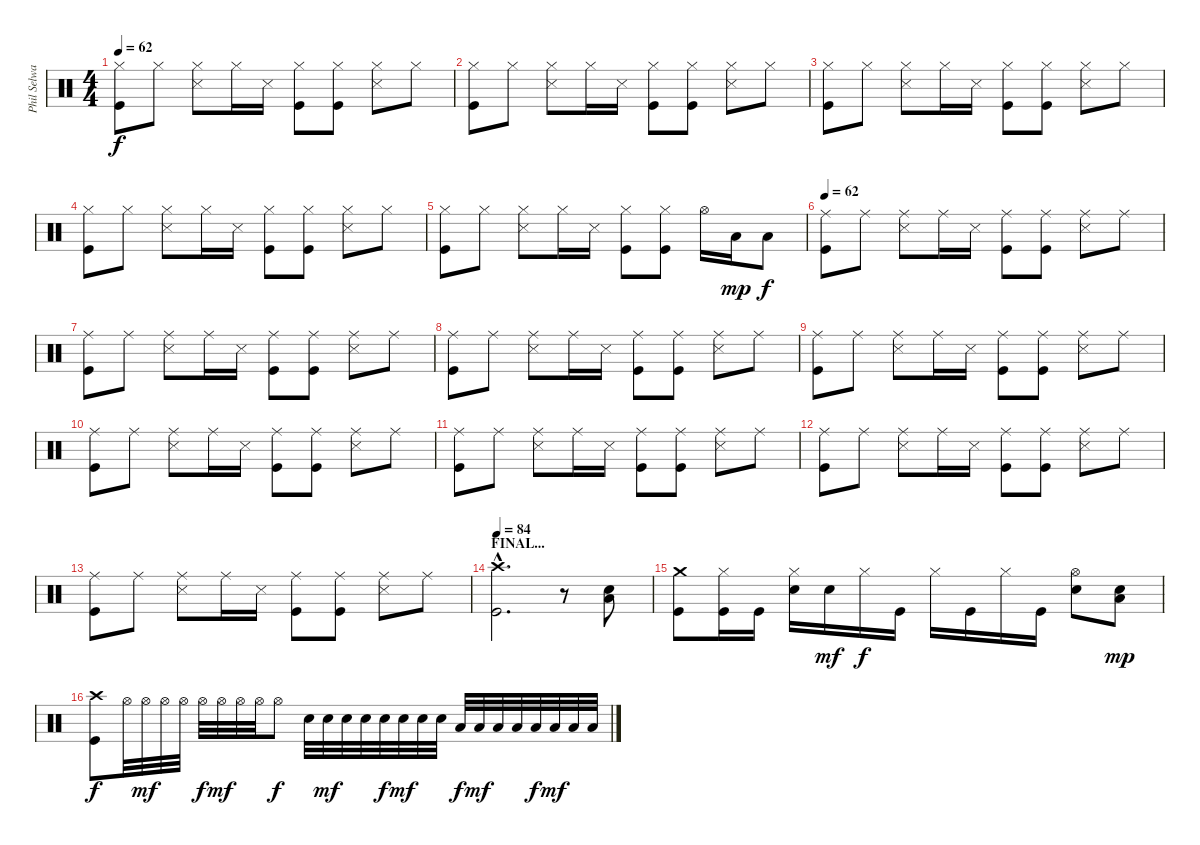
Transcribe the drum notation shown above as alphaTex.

\track ("Phil Selway" "Phil Selwa") {instrument percussion}
\staff {score}
\articulation defaults
\ts (4 4)
\tempo 62
\clef neutral
\ks c
("Hi-Hat (closed)" "Kick (hit)").8{dy f} "Hi-Hat (closed)".8 ("Hi-Hat (closed)" "Snare (side stick) 3").8 "Hi-Hat (closed)".16 "Snare (side stick) 3".16 ("Hi-Hat (closed)" "Kick (hit)").8 ("Hi-Hat (closed)" "Kick (hit)").8 ("Hi-Hat (closed)" "Snare (side stick) 3").8 "Hi-Hat (closed)".8 |
("Hi-Hat (closed)" "Kick (hit)").8 "Hi-Hat (closed)".8 ("Hi-Hat (closed)" "Snare (side stick) 3").8 "Hi-Hat (closed)".16 "Snare (side stick) 3".16 ("Hi-Hat (closed)" "Kick (hit)").8 ("Hi-Hat (closed)" "Kick (hit)").8 ("Hi-Hat (closed)" "Snare (side stick) 3").8 "Hi-Hat (closed)".8 |
("Hi-Hat (closed)" "Kick (hit)").8 "Hi-Hat (closed)".8 ("Hi-Hat (closed)" "Snare (side stick) 3").8 "Hi-Hat (closed)".16 "Snare (side stick) 3".16 ("Hi-Hat (closed)" "Kick (hit)").8 ("Hi-Hat (closed)" "Kick (hit)").8 ("Hi-Hat (closed)" "Snare (side stick) 3").8 "Hi-Hat (closed)".8 |
("Hi-Hat (closed)" "Kick (hit)").8 "Hi-Hat (closed)".8 ("Hi-Hat (closed)" "Snare (side stick) 3").8 "Hi-Hat (closed)".16 "Snare (side stick) 3".16 ("Hi-Hat (closed)" "Kick (hit)").8 ("Hi-Hat (closed)" "Kick (hit)").8 ("Hi-Hat (closed)" "Snare (side stick) 3").8 "Hi-Hat (closed)".8 |
("Hi-Hat (closed)" "Kick (hit)").8 "Hi-Hat (closed)".8 ("Hi-Hat (closed)" "Snare (side stick) 3").8 "Hi-Hat (closed)".16 "Snare (side stick) 3".16 ("Hi-Hat (closed)" "Kick (hit)").8 ("Hi-Hat (closed)" "Kick (hit)").8 "Hi-Hat (open)".16 "Low Tom (hit)".16{dy mp} "Low Tom (hit)".8{dy f} |
\tempo 62
("Ride (middle)" "Kick (hit)").8 "Ride (middle)".8 ("Ride (middle)" "Snare (side stick) 3").8 "Ride (middle)".16 "Snare (side stick) 3".16 ("Ride (middle)" "Kick (hit)").8 ("Ride (middle)" "Kick (hit)").8 ("Ride (middle)" "Snare (side stick) 3").8 "Ride (middle)".8 |
("Ride (middle)" "Kick (hit)").8 "Ride (middle)".8 ("Ride (middle)" "Snare (side stick) 3").8 "Ride (middle)".16 "Snare (side stick) 3".16 ("Ride (middle)" "Kick (hit)").8 ("Ride (middle)" "Kick (hit)").8 ("Ride (middle)" "Snare (side stick) 3").8 "Ride (middle)".8 |
("Ride (middle)" "Kick (hit)").8 "Ride (middle)".8 ("Ride (middle)" "Snare (side stick) 3").8 "Ride (middle)".16 "Snare (side stick) 3".16 ("Ride (middle)" "Kick (hit)").8 ("Ride (middle)" "Kick (hit)").8 ("Ride (middle)" "Snare (side stick) 3").8 "Ride (middle)".8 |
("Ride (middle)" "Kick (hit)").8 "Ride (middle)".8 ("Ride (middle)" "Snare (side stick) 3").8 "Ride (middle)".16 "Snare (side stick) 3".16 ("Ride (middle)" "Kick (hit)").8 ("Ride (middle)" "Kick (hit)").8 ("Ride (middle)" "Snare (side stick) 3").8 "Ride (middle)".8 |
("Ride (middle)" "Kick (hit)").8 "Ride (middle)".8 ("Ride (middle)" "Snare (side stick) 3").8 "Ride (middle)".16 "Snare (side stick) 3".16 ("Ride (middle)" "Kick (hit)").8 ("Ride (middle)" "Kick (hit)").8 ("Ride (middle)" "Snare (side stick) 3").8 "Ride (middle)".8 |
("Ride (middle)" "Kick (hit)").8 "Ride (middle)".8 ("Ride (middle)" "Snare (side stick) 3").8 "Ride (middle)".16 "Snare (side stick) 3".16 ("Ride (middle)" "Kick (hit)").8 ("Ride (middle)" "Kick (hit)").8 ("Ride (middle)" "Snare (side stick) 3").8 "Ride (middle)".8 |
("Ride (middle)" "Kick (hit)").8 "Ride (middle)".8 ("Ride (middle)" "Snare (side stick) 3").8 "Ride (middle)".16 "Snare (side stick) 3".16 ("Ride (middle)" "Kick (hit)").8 ("Ride (middle)" "Kick (hit)").8 ("Ride (middle)" "Snare (side stick) 3").8 "Ride (middle)".8 |
("Ride (middle)" "Kick (hit)").8 "Ride (middle)".8 ("Ride (middle)" "Snare (side stick) 3").8 "Ride (middle)".16 "Snare (side stick) 3".16 ("Ride (middle)" "Kick (hit)").8 ("Ride (middle)" "Kick (hit)").8 ("Ride (middle)" "Snare (side stick) 3").8 "Ride (middle)".8 |
\section ("" "FINAL...")
\tempo 84
("Crash high (hit)"{hac} "Kick (hit)"{hac}).2{d} r.8 ("Snare (hit) 2" "Low Floor Tom (hit)").8 |
("Crash medium (hit)" "Kick (hit)").8 ("Hi-Hat (closed)" "Kick (hit)").16 "Kick (hit)".16 ("Hi-Hat (closed)" "Snare (hit) 2").16 "Snare (hit) 2".16{dy mf} "Hi-Hat (closed)".16{dy f} "Kick (hit)".16 "Hi-Hat (closed)".16 "Kick (hit)".16 "Hi-Hat (closed)".16 "Kick (hit)".16 ("Hi-Hat (open)" "Snare (hit) 2").8 ("Snare (hit) 2" "Low Floor Tom (hit)").8{dy mp} |
("Crash high (hit)" "Kick (hit)").8{dy f} "Hi-Hat (open)".32 "Hi-Hat (open)".32{dy mf} "Hi-Hat (open)".32 "Hi-Hat (open)".32 "Hi-Hat (open)".32{dy f} "Hi-Hat (open)".32{dy mf} "Hi-Hat (open)".32 "Hi-Hat (open)".32 "Hi-Hat (open)".8{dy f} "Snare (hit) 2".32 "Snare (hit) 2".32{dy mf} "Snare (hit) 2".32 "Snare (hit) 2".32 "Snare (hit) 2".32{dy f} "Snare (hit) 2".32{dy mf} "Snare (hit) 2".32 "Snare (hit) 2".32 "Low Tom (hit)".32{dy f} "Low Tom (hit)".32{dy mf} "Low Tom (hit)".32 "Low Tom (hit)".32 "Low Tom (hit)".32{dy f} "Low Tom (hit)".32{dy mf} "Low Tom (hit)".32 "Low Tom (hit)".32
